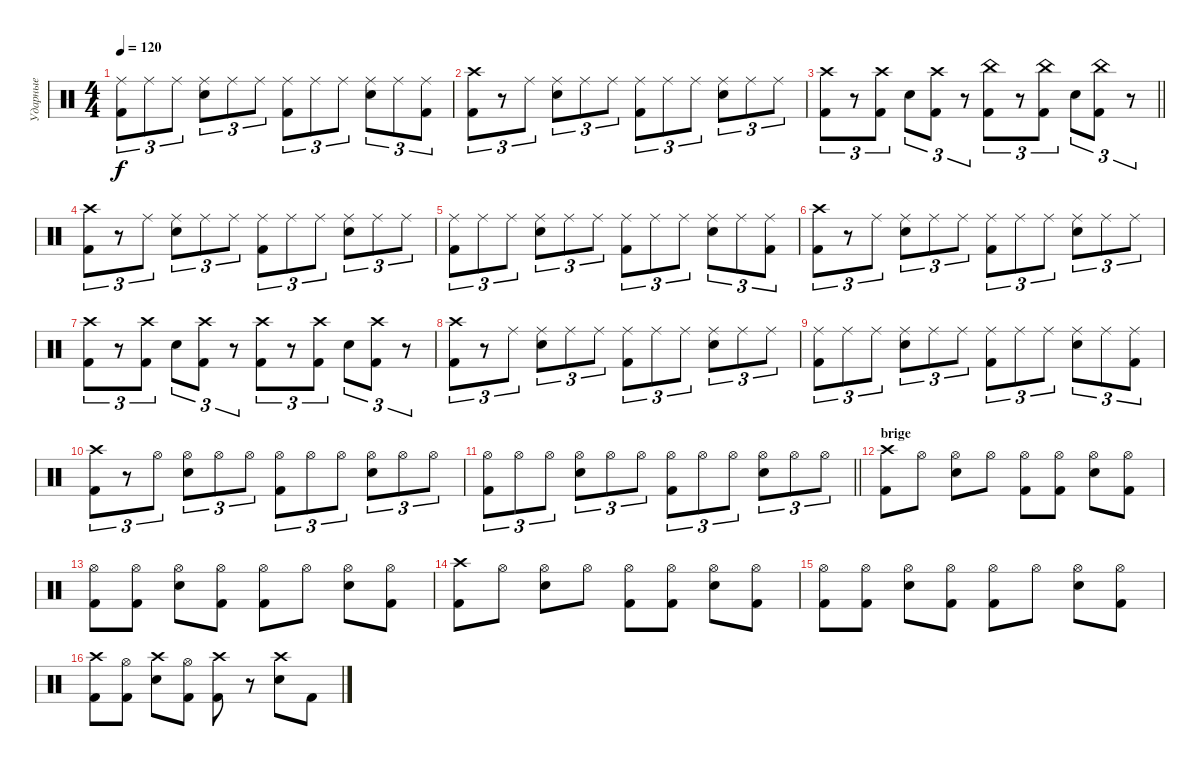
\track ("Ударные" "Ударные") {instrument percussion}
\staff {score}
\articulation defaults
\ts (4 4)
\tempo 120
\clef neutral
\ks c
("Ride (middle)" "Kick (hit) 2").8{tu (3 2) dy f} "Ride (middle)".8{tu (3 2)} "Ride (middle)".8{tu (3 2)} ("Ride (middle)" "Snare (hit) 2").8{tu (3 2)} "Ride (middle)".8{tu (3 2)} "Ride (middle)".8{tu (3 2)} ("Ride (middle)" "Kick (hit) 2").8{tu (3 2)} "Ride (middle)".8{tu (3 2)} "Ride (middle)".8{tu (3 2)} ("Ride (middle)" "Snare (hit) 2").8{tu (3 2)} "Ride (middle)".8{tu (3 2)} ("Ride (middle)" "Kick (hit) 2").8{tu (3 2)} |
("Crash high (hit)" "Kick (hit) 2").8{tu (3 2)} r.8{tu (3 2)} "Ride (middle)".8{tu (3 2)} ("Ride (middle)" "Snare (hit) 2").8{tu (3 2)} "Ride (middle)".8{tu (3 2)} "Ride (middle)".8{tu (3 2)} ("Ride (middle)" "Kick (hit) 2").8{tu (3 2)} "Ride (middle)".8{tu (3 2)} "Ride (middle)".8{tu (3 2)} ("Ride (middle)" "Snare (hit) 2").8{tu (3 2)} "Ride (middle)".8{tu (3 2)} "Ride (middle)".8{tu (3 2)} |
\barLineRight lightlight
("Crash high (hit)" "Kick (hit) 2").8{tu (3 2)} r.8{tu (3 2)} ("Crash high (hit)" "Kick (hit) 2").8{tu (3 2)} "Snare (hit) 2".8{tu (3 2)} ("Crash high (hit)" "Kick (hit) 2").8{tu (3 2)} r.8{tu (3 2)} ("China (hit)" "Kick (hit) 2").8{tu (3 2)} r.8{tu (3 2)} ("China (hit)" "Kick (hit) 2").8{tu (3 2)} "Snare (hit) 2".8{tu (3 2)} ("China (hit)" "Kick (hit) 2").8{tu (3 2)} r.8{tu (3 2)} |
("Crash high (hit)" "Kick (hit) 2").8{tu (3 2)} r.8{tu (3 2)} "Ride (middle)".8{tu (3 2)} ("Ride (middle)" "Snare (hit) 2").8{tu (3 2)} "Ride (middle)".8{tu (3 2)} "Ride (middle)".8{tu (3 2)} ("Ride (middle)" "Kick (hit) 2").8{tu (3 2)} "Ride (middle)".8{tu (3 2)} "Ride (middle)".8{tu (3 2)} ("Ride (middle)" "Snare (hit) 2").8{tu (3 2)} "Ride (middle)".8{tu (3 2)} "Ride (middle)".8{tu (3 2)} |
("Ride (middle)" "Kick (hit) 2").8{tu (3 2)} "Ride (middle)".8{tu (3 2)} "Ride (middle)".8{tu (3 2)} ("Ride (middle)" "Snare (hit) 2").8{tu (3 2)} "Ride (middle)".8{tu (3 2)} "Ride (middle)".8{tu (3 2)} ("Ride (middle)" "Kick (hit) 2").8{tu (3 2)} "Ride (middle)".8{tu (3 2)} "Ride (middle)".8{tu (3 2)} ("Ride (middle)" "Snare (hit) 2").8{tu (3 2)} "Ride (middle)".8{tu (3 2)} ("Ride (middle)" "Kick (hit) 2").8{tu (3 2)} |
("Crash high (hit)" "Kick (hit) 2").8{tu (3 2)} r.8{tu (3 2)} "Ride (middle)".8{tu (3 2)} ("Ride (middle)" "Snare (hit) 2").8{tu (3 2)} "Ride (middle)".8{tu (3 2)} "Ride (middle)".8{tu (3 2)} ("Ride (middle)" "Kick (hit) 2").8{tu (3 2)} "Ride (middle)".8{tu (3 2)} "Ride (middle)".8{tu (3 2)} ("Ride (middle)" "Snare (hit) 2").8{tu (3 2)} "Ride (middle)".8{tu (3 2)} "Ride (middle)".8{tu (3 2)} |
("Crash high (hit)" "Kick (hit) 2").8{tu (3 2)} r.8{tu (3 2)} ("Crash high (hit)" "Kick (hit) 2").8{tu (3 2)} "Snare (hit) 2".8{tu (3 2)} ("Crash high (hit)" "Kick (hit) 2").8{tu (3 2)} r.8{tu (3 2)} ("Crash high (hit)" "Kick (hit) 2").8{tu (3 2)} r.8{tu (3 2)} ("Crash high (hit)" "Kick (hit) 2").8{tu (3 2)} "Snare (hit) 2".8{tu (3 2)} ("Crash high (hit)" "Kick (hit) 2").8{tu (3 2)} r.8{tu (3 2)} |
("Crash high (hit)" "Kick (hit) 2").8{tu (3 2)} r.8{tu (3 2)} "Ride (middle)".8{tu (3 2)} ("Ride (middle)" "Snare (hit) 2").8{tu (3 2)} "Ride (middle)".8{tu (3 2)} "Ride (middle)".8{tu (3 2)} ("Ride (middle)" "Kick (hit) 2").8{tu (3 2)} "Ride (middle)".8{tu (3 2)} "Ride (middle)".8{tu (3 2)} ("Ride (middle)" "Snare (hit) 2").8{tu (3 2)} "Ride (middle)".8{tu (3 2)} "Ride (middle)".8{tu (3 2)} |
("Ride (middle)" "Kick (hit) 2").8{tu (3 2)} "Ride (middle)".8{tu (3 2)} "Ride (middle)".8{tu (3 2)} ("Ride (middle)" "Snare (hit) 2").8{tu (3 2)} "Ride (middle)".8{tu (3 2)} "Ride (middle)".8{tu (3 2)} ("Ride (middle)" "Kick (hit) 2").8{tu (3 2)} "Ride (middle)".8{tu (3 2)} "Ride (middle)".8{tu (3 2)} ("Ride (middle)" "Snare (hit) 2").8{tu (3 2)} "Ride (middle)".8{tu (3 2)} ("Ride (middle)" "Kick (hit) 2").8{tu (3 2)} |
("Crash high (hit)" "Kick (hit) 2").8{tu (3 2)} r.8{tu (3 2)} "Hi-Hat (open)".8{tu (3 2)} ("Hi-Hat (open)" "Snare (hit) 2").8{tu (3 2)} "Hi-Hat (open)".8{tu (3 2)} "Hi-Hat (open)".8{tu (3 2)} ("Hi-Hat (open)" "Kick (hit) 2").8{tu (3 2)} "Hi-Hat (open)".8{tu (3 2)} "Hi-Hat (open)".8{tu (3 2)} ("Hi-Hat (open)" "Snare (hit) 2").8{tu (3 2)} "Hi-Hat (open)".8{tu (3 2)} "Hi-Hat (open)".8{tu (3 2)} |
\barLineRight lightlight
("Hi-Hat (open)" "Kick (hit) 2").8{tu (3 2)} "Hi-Hat (open)".8{tu (3 2)} "Hi-Hat (open)".8{tu (3 2)} ("Hi-Hat (open)" "Snare (hit) 2").8{tu (3 2)} "Hi-Hat (open)".8{tu (3 2)} "Hi-Hat (open)".8{tu (3 2)} ("Hi-Hat (open)" "Kick (hit) 2").8{tu (3 2)} "Hi-Hat (open)".8{tu (3 2)} "Hi-Hat (open)".8{tu (3 2)} ("Hi-Hat (open)" "Snare (hit) 2").8{tu (3 2)} "Hi-Hat (open)".8{tu (3 2)} "Hi-Hat (open)".8{tu (3 2)} |
\section ("" "brige")
("Crash high (hit)" "Kick (hit) 2").8 "Hi-Hat (open)".8 ("Hi-Hat (open)" "Snare (hit) 2").8 "Hi-Hat (open)".8 ("Hi-Hat (open)" "Kick (hit) 2").8 ("Hi-Hat (open)" "Kick (hit) 2").8 ("Hi-Hat (open)" "Snare (hit) 2").8 ("Hi-Hat (open)" "Kick (hit) 2").8 |
("Hi-Hat (open)" "Kick (hit) 2").8 ("Hi-Hat (open)" "Kick (hit) 2").8 ("Hi-Hat (open)" "Snare (hit) 2").8 ("Hi-Hat (open)" "Kick (hit) 2").8 ("Hi-Hat (open)" "Kick (hit) 2").8 "Hi-Hat (open)".8 ("Hi-Hat (open)" "Snare (hit) 2").8 ("Hi-Hat (open)" "Kick (hit) 2").8 |
("Crash high (hit)" "Kick (hit) 2").8 "Hi-Hat (open)".8 ("Hi-Hat (open)" "Snare (hit) 2").8 "Hi-Hat (open)".8 ("Hi-Hat (open)" "Kick (hit) 2").8 ("Hi-Hat (open)" "Kick (hit) 2").8 ("Hi-Hat (open)" "Snare (hit) 2").8 ("Hi-Hat (open)" "Kick (hit) 2").8 |
("Hi-Hat (open)" "Kick (hit) 2").8 ("Hi-Hat (open)" "Kick (hit) 2").8 ("Hi-Hat (open)" "Snare (hit) 2").8 ("Hi-Hat (open)" "Kick (hit) 2").8 ("Hi-Hat (open)" "Kick (hit) 2").8 "Hi-Hat (open)".8 ("Hi-Hat (open)" "Snare (hit) 2").8 ("Hi-Hat (open)" "Kick (hit) 2").8 |
("Crash high (hit)" "Kick (hit) 2").8 ("Hi-Hat (open)" "Kick (hit) 2").8 ("Crash high (hit)" "Snare (hit) 2").8 ("Hi-Hat (open)" "Kick (hit) 2").8 ("Crash high (hit)" "Kick (hit) 2").8 r.8 ("Crash high (hit)" "Snare (hit) 2").8 "Kick (hit) 2".8
